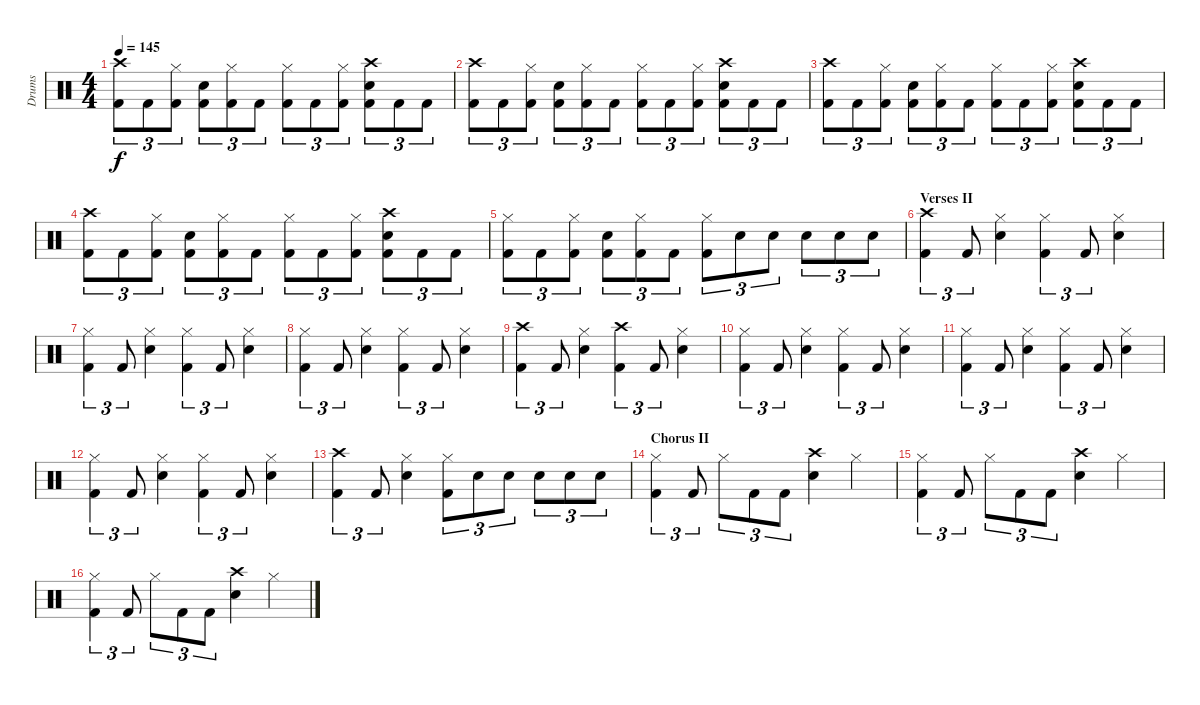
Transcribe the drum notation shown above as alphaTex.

\track ("Drums" "Drums") {instrument percussion}
\staff {score}
\articulation defaults
\ts (4 4)
\tempo 145
\clef neutral
\ks c
("Crash high (hit)" "Kick (hit) 2").8{tu (3 2) dy f} "Kick (hit) 2".8{tu (3 2)} ("Hi-Hat (closed)" "Kick (hit) 2").8{tu (3 2)} ("Snare (hit) 2" "Kick (hit) 2").8{tu (3 2)} ("Hi-Hat (closed)" "Kick (hit) 2").8{tu (3 2)} "Kick (hit) 2".8{tu (3 2)} ("Hi-Hat (closed)" "Kick (hit) 2").8{tu (3 2)} "Kick (hit) 2".8{tu (3 2)} ("Hi-Hat (closed)" "Kick (hit) 2").8{tu (3 2)} ("Crash high (hit)" "Snare (hit) 2" "Kick (hit) 2").8{tu (3 2)} "Kick (hit) 2".8{tu (3 2)} "Kick (hit) 2".8{tu (3 2)} |
("Crash high (hit)" "Kick (hit) 2").8{tu (3 2)} "Kick (hit) 2".8{tu (3 2)} ("Hi-Hat (closed)" "Kick (hit) 2").8{tu (3 2)} ("Snare (hit) 2" "Kick (hit) 2").8{tu (3 2)} ("Hi-Hat (closed)" "Kick (hit) 2").8{tu (3 2)} "Kick (hit) 2".8{tu (3 2)} ("Hi-Hat (closed)" "Kick (hit) 2").8{tu (3 2)} "Kick (hit) 2".8{tu (3 2)} ("Hi-Hat (closed)" "Kick (hit) 2").8{tu (3 2)} ("Crash high (hit)" "Snare (hit) 2" "Kick (hit) 2").8{tu (3 2)} "Kick (hit) 2".8{tu (3 2)} "Kick (hit) 2".8{tu (3 2)} |
("Crash high (hit)" "Kick (hit) 2").8{tu (3 2)} "Kick (hit) 2".8{tu (3 2)} ("Hi-Hat (closed)" "Kick (hit) 2").8{tu (3 2)} ("Snare (hit) 2" "Kick (hit) 2").8{tu (3 2)} ("Hi-Hat (closed)" "Kick (hit) 2").8{tu (3 2)} "Kick (hit) 2".8{tu (3 2)} ("Hi-Hat (closed)" "Kick (hit) 2").8{tu (3 2)} "Kick (hit) 2".8{tu (3 2)} ("Hi-Hat (closed)" "Kick (hit) 2").8{tu (3 2)} ("Crash high (hit)" "Snare (hit) 2" "Kick (hit) 2").8{tu (3 2)} "Kick (hit) 2".8{tu (3 2)} "Kick (hit) 2".8{tu (3 2)} |
("Crash high (hit)" "Kick (hit) 2").8{tu (3 2)} "Kick (hit) 2".8{tu (3 2)} ("Hi-Hat (closed)" "Kick (hit) 2").8{tu (3 2)} ("Snare (hit) 2" "Kick (hit) 2").8{tu (3 2)} ("Hi-Hat (closed)" "Kick (hit) 2").8{tu (3 2)} "Kick (hit) 2".8{tu (3 2)} ("Hi-Hat (closed)" "Kick (hit) 2").8{tu (3 2)} "Kick (hit) 2".8{tu (3 2)} ("Hi-Hat (closed)" "Kick (hit) 2").8{tu (3 2)} ("Crash high (hit)" "Snare (hit) 2" "Kick (hit) 2").8{tu (3 2)} "Kick (hit) 2".8{tu (3 2)} "Kick (hit) 2".8{tu (3 2)} |
("Hi-Hat (closed)" "Kick (hit) 2").8{tu (3 2)} "Kick (hit) 2".8{tu (3 2)} ("Hi-Hat (closed)" "Kick (hit) 2").8{tu (3 2)} ("Snare (hit) 2" "Kick (hit) 2").8{tu (3 2)} ("Hi-Hat (closed)" "Kick (hit) 2").8{tu (3 2)} "Kick (hit) 2".8{tu (3 2)} ("Hi-Hat (closed)" "Kick (hit) 2").8{tu (3 2)} "Snare (hit) 2".8{tu (3 2)} "Snare (hit) 2".8{tu (3 2)} "Snare (hit) 2".8{tu (3 2)} "Snare (hit) 2".8{tu (3 2)} "Snare (hit) 2".8{tu (3 2)} |
\section ("" "Verses II")
("Crash high (hit)" "Kick (hit) 2").4{tu (3 2)} "Kick (hit) 2".8{tu (3 2)} ("Hi-Hat (closed)" "Snare (hit) 2").4 ("Hi-Hat (closed)" "Kick (hit) 2").4{tu (3 2)} "Kick (hit) 2".8{tu (3 2)} ("Hi-Hat (closed)" "Snare (hit) 2").4 |
("Hi-Hat (closed)" "Kick (hit) 2").4{tu (3 2)} "Kick (hit) 2".8{tu (3 2)} ("Hi-Hat (closed)" "Snare (hit) 2").4 ("Hi-Hat (closed)" "Kick (hit) 2").4{tu (3 2)} "Kick (hit) 2".8{tu (3 2)} ("Hi-Hat (closed)" "Snare (hit) 2").4 |
("Hi-Hat (closed)" "Kick (hit) 2").4{tu (3 2)} "Kick (hit) 2".8{tu (3 2)} ("Hi-Hat (closed)" "Snare (hit) 2").4 ("Hi-Hat (closed)" "Kick (hit) 2").4{tu (3 2)} "Kick (hit) 2".8{tu (3 2)} ("Hi-Hat (closed)" "Snare (hit) 2").4 |
("Crash high (hit)" "Kick (hit) 2").4{tu (3 2)} "Kick (hit) 2".8{tu (3 2)} ("Hi-Hat (closed)" "Snare (hit) 2").4 ("Crash high (hit)" "Kick (hit) 2").4{tu (3 2)} "Kick (hit) 2".8{tu (3 2)} ("Hi-Hat (closed)" "Snare (hit) 2").4 |
("Hi-Hat (closed)" "Kick (hit) 2").4{tu (3 2)} "Kick (hit) 2".8{tu (3 2)} ("Hi-Hat (closed)" "Snare (hit) 2").4 ("Hi-Hat (closed)" "Kick (hit) 2").4{tu (3 2)} "Kick (hit) 2".8{tu (3 2)} ("Hi-Hat (closed)" "Snare (hit) 2").4 |
("Hi-Hat (closed)" "Kick (hit) 2").4{tu (3 2)} "Kick (hit) 2".8{tu (3 2)} ("Hi-Hat (closed)" "Snare (hit) 2").4 ("Hi-Hat (closed)" "Kick (hit) 2").4{tu (3 2)} "Kick (hit) 2".8{tu (3 2)} ("Hi-Hat (closed)" "Snare (hit) 2").4 |
("Hi-Hat (closed)" "Kick (hit) 2").4{tu (3 2)} "Kick (hit) 2".8{tu (3 2)} ("Hi-Hat (closed)" "Snare (hit) 2").4 ("Hi-Hat (closed)" "Kick (hit) 2").4{tu (3 2)} "Kick (hit) 2".8{tu (3 2)} ("Hi-Hat (closed)" "Snare (hit) 2").4 |
("Kick (hit) 2" "Crash high (hit)").4{tu (3 2)} "Kick (hit) 2".8{tu (3 2)} ("Hi-Hat (closed)" "Snare (hit) 2").4 ("Hi-Hat (closed)" "Kick (hit) 2").8{tu (3 2)} "Snare (hit) 2".8{tu (3 2)} "Snare (hit) 2".8{tu (3 2)} "Snare (hit) 2".8{tu (3 2)} "Snare (hit) 2".8{tu (3 2)} "Snare (hit) 2".8{tu (3 2)} |
\section ("" "Chorus II")
("Hi-Hat (closed)" "Kick (hit) 2").4{tu (3 2)} "Kick (hit) 2".8{tu (3 2)} "Hi-Hat (closed)".8{tu (3 2)} "Kick (hit) 2".8{tu (3 2)} "Kick (hit) 2".8{tu (3 2)} ("Crash high (hit)" "Snare (hit) 2").4 "Hi-Hat (closed)".4 |
("Hi-Hat (closed)" "Kick (hit) 2").4{tu (3 2)} "Kick (hit) 2".8{tu (3 2)} "Hi-Hat (closed)".8{tu (3 2)} "Kick (hit) 2".8{tu (3 2)} "Kick (hit) 2".8{tu (3 2)} ("Crash high (hit)" "Snare (hit) 2").4 "Hi-Hat (closed)".4 |
("Hi-Hat (closed)" "Kick (hit) 2").4{tu (3 2)} "Kick (hit) 2".8{tu (3 2)} "Hi-Hat (closed)".8{tu (3 2)} "Kick (hit) 2".8{tu (3 2)} "Kick (hit) 2".8{tu (3 2)} ("Crash high (hit)" "Snare (hit) 2").4 "Hi-Hat (closed)".4
